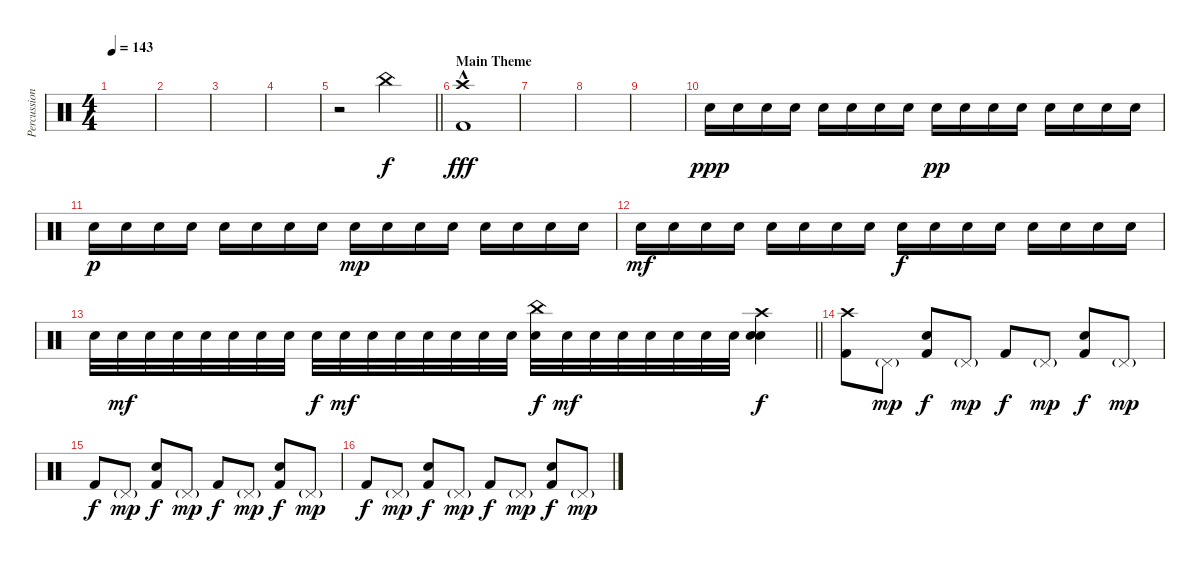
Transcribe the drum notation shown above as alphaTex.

\track ("Percussion" "Percussion") {instrument percussion}
\staff {score}
\articulation defaults
\ts (4 4)
\tempo 143
\clef neutral
\ks c
|
|
|
|
\barLineRight lightlight
r.2 "China (hit)".2 |
\section ("" "Main Theme")
("Crash high (hit)" "Kick (hit) 2"{hac}).1{dy fff} |
|
|
|
"Snare (hit) 2".16{dy ppp} "Snare (hit) 2".16 "Snare (hit) 2".16 "Snare (hit) 2".16 "Snare (hit) 2".16 "Snare (hit) 2".16 "Snare (hit) 2".16 "Snare (hit) 2".16 "Snare (hit) 2".16{dy pp} "Snare (hit) 2".16 "Snare (hit) 2".16 "Snare (hit) 2".16 "Snare (hit) 2".16 "Snare (hit) 2".16 "Snare (hit) 2".16 "Snare (hit) 2".16 |
"Snare (hit) 2".16{dy p} "Snare (hit) 2".16 "Snare (hit) 2".16 "Snare (hit) 2".16 "Snare (hit) 2".16 "Snare (hit) 2".16 "Snare (hit) 2".16 "Snare (hit) 2".16 "Snare (hit) 2".16{dy mp} "Snare (hit) 2".16 "Snare (hit) 2".16 "Snare (hit) 2".16 "Snare (hit) 2".16 "Snare (hit) 2".16 "Snare (hit) 2".16 "Snare (hit) 2".16 |
"Snare (hit) 2".16{dy mf} "Snare (hit) 2".16 "Snare (hit) 2".16 "Snare (hit) 2".16 "Snare (hit) 2".16 "Snare (hit) 2".16 "Snare (hit) 2".16 "Snare (hit) 2".16 "Snare (hit) 2".16{dy f} "Snare (hit) 2".16 "Snare (hit) 2".16 "Snare (hit) 2".16 "Snare (hit) 2".16 "Snare (hit) 2".16 "Snare (hit) 2".16 "Snare (hit) 2".16 |
\barLineRight lightlight "Snare (hit) 2".32 "Snare (hit) 2".32{dy mf} "Snare (hit) 2".32 "Snare (hit) 2".32 "Snare (hit) 2".32 "Snare (hit) 2".32 "Snare (hit) 2".32 "Snare (hit) 2".32 "Snare (hit) 2".32{dy f} "Snare (hit) 2".32{dy mf} "Snare (hit) 2".32 "Snare (hit) 2".32 "Snare (hit) 2".32 "Snare (hit) 2".32 "Snare (hit) 2".32 "Snare (hit) 2".32
("Snare (hit) 2" "China (hit)").32{dy f} "Snare (hit) 2".32{dy mf} "Snare (hit) 2".32 "Snare (hit) 2".32 "Snare (hit) 2".32 "Snare (hit) 2".32 "Snare (hit) 2".32 "Snare (hit) 2".32 ("Snare (hit) 2" "Crash high (hit)" "Snare (hit)").4{dy f} |
("Crash high (hit)" "Kick (hit) 2").8 "Pedal Hi-Hat (hit)"{g}.8{dy mp} ("Electric Snare (hit)" "Kick (hit) 2").8{dy f} "Pedal Hi-Hat (hit)"{g}.8{dy mp} "Kick (hit) 2".8{dy f} "Pedal Hi-Hat (hit)"{g}.8{dy mp} ("Electric Snare (hit)" "Kick (hit) 2").8{dy f} "Pedal Hi-Hat (hit)"{g}.8{dy mp} |
"Kick (hit) 2".8{dy f} "Pedal Hi-Hat (hit)"{g}.8{dy mp} ("Electric Snare (hit)" "Kick (hit) 2").8{dy f} "Pedal Hi-Hat (hit)"{g}.8{dy mp} "Kick (hit) 2".8{dy f} "Pedal Hi-Hat (hit)"{g}.8{dy mp} ("Electric Snare (hit)" "Kick (hit) 2").8{dy f} "Pedal Hi-Hat (hit)"{g}.8{dy mp} |
"Kick (hit) 2".8{dy f} "Pedal Hi-Hat (hit)"{g}.8{dy mp} ("Electric Snare (hit)" "Kick (hit) 2").8{dy f} "Pedal Hi-Hat (hit)"{g}.8{dy mp} "Kick (hit) 2".8{dy f} "Pedal Hi-Hat (hit)"{g}.8{dy mp} ("Electric Snare (hit)" "Kick (hit) 2").8{dy f} "Pedal Hi-Hat (hit)"{g}.8{dy mp}
